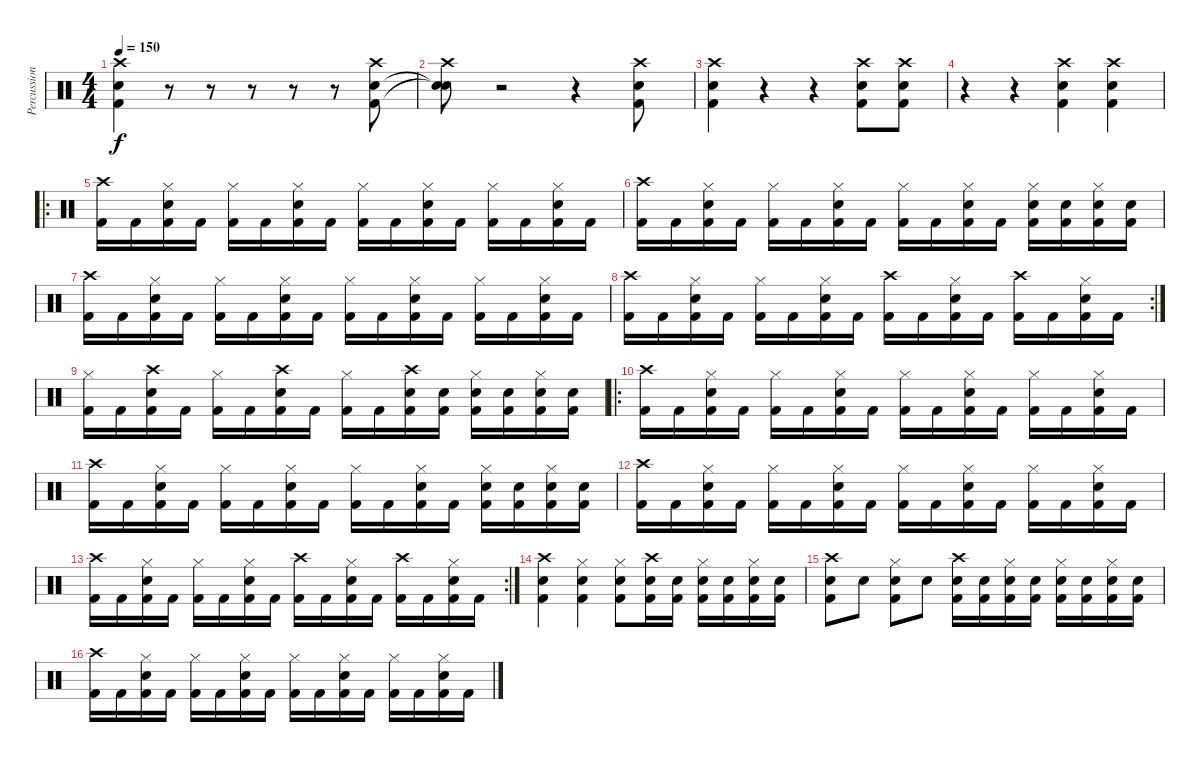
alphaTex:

\track ("Percussion" "Percussion") {instrument percussion}
\staff {score}
\articulation defaults
\ts (4 4)
\tempo 150
\clef neutral
\ks c
("Crash high (hit)" "Snare (hit) 2" "Kick (hit) 2").4{dy f} r.8 r.8 r.8 r.8 r.8 ("Crash high (hit)" "Snare (hit) 2" "Kick (hit) 2").8 |
("Crash high (hit)" "Snare (hit)"{t} "Snare (hit)"{t}).8 r.2 r.4 ("Crash high (hit)" "Snare (hit) 2" "Kick (hit) 2").8 |
("Crash high (hit)" "Snare (hit) 2" "Kick (hit) 2").4 r.4 r.4 ("Crash high (hit)" "Snare (hit) 2" "Kick (hit) 2").8 ("Crash high (hit)" "Snare (hit) 2" "Kick (hit) 2").8 |
r.4 r.4 ("Crash high (hit)" "Snare (hit) 2" "Kick (hit) 2").4 ("Crash high (hit)" "Snare (hit) 2" "Kick (hit) 2").4 |
\ro
("Crash high (hit)" "Kick (hit) 2").16 "Kick (hit) 2".16 ("Hi-Hat (closed)" "Snare (hit) 2" "Kick (hit) 2").16 "Kick (hit) 2".16 ("Hi-Hat (closed)" "Kick (hit) 2").16 "Kick (hit) 2".16 ("Hi-Hat (closed)" "Snare (hit) 2" "Kick (hit) 2").16 "Kick (hit) 2".16 ("Hi-Hat (closed)" "Kick (hit) 2").16 "Kick (hit) 2".16 ("Hi-Hat (closed)" "Snare (hit) 2" "Kick (hit) 2").16 "Kick (hit) 2".16 ("Hi-Hat (closed)" "Kick (hit) 2").16 "Kick (hit) 2".16 ("Hi-Hat (closed)" "Snare (hit) 2" "Kick (hit) 2").16 "Kick (hit) 2".16 |
("Crash high (hit)" "Kick (hit) 2").16 "Kick (hit) 2".16 ("Hi-Hat (closed)" "Snare (hit) 2" "Kick (hit) 2").16 "Kick (hit) 2".16 ("Hi-Hat (closed)" "Kick (hit) 2").16 "Kick (hit) 2".16 ("Hi-Hat (closed)" "Snare (hit) 2" "Kick (hit) 2").16 "Kick (hit) 2".16 ("Hi-Hat (closed)" "Kick (hit) 2").16 "Kick (hit) 2".16 ("Hi-Hat (closed)" "Snare (hit) 2" "Kick (hit) 2").16 "Kick (hit) 2".16 ("Hi-Hat (closed)" "Snare (hit) 2" "Kick (hit) 2").16 ("Snare (hit) 2" "Kick (hit) 2").16 ("Hi-Hat (closed)" "Snare (hit) 2" "Kick (hit) 2").16 ("Snare (hit) 2" "Kick (hit) 2").16 |
("Crash high (hit)" "Kick (hit) 2").16 "Kick (hit) 2".16 ("Hi-Hat (closed)" "Snare (hit) 2" "Kick (hit) 2").16 "Kick (hit) 2".16 ("Hi-Hat (closed)" "Kick (hit) 2").16 "Kick (hit) 2".16 ("Hi-Hat (closed)" "Snare (hit) 2" "Kick (hit) 2").16 "Kick (hit) 2".16 ("Hi-Hat (closed)" "Kick (hit) 2").16 "Kick (hit) 2".16 ("Hi-Hat (closed)" "Snare (hit) 2" "Kick (hit) 2").16 "Kick (hit) 2".16 ("Hi-Hat (closed)" "Kick (hit) 2").16 "Kick (hit) 2".16 ("Hi-Hat (closed)" "Snare (hit) 2" "Kick (hit) 2").16 "Kick (hit) 2".16 |
\rc 2
("Crash high (hit)" "Kick (hit) 2").16 "Kick (hit) 2".16 ("Hi-Hat (closed)" "Snare (hit) 2" "Kick (hit) 2").16 "Kick (hit) 2".16 ("Hi-Hat (closed)" "Kick (hit) 2").16 "Kick (hit) 2".16 ("Hi-Hat (closed)" "Snare (hit) 2" "Kick (hit) 2").16 "Kick (hit) 2".16 ("Crash high (hit)" "Kick (hit) 2").16 "Kick (hit) 2".16 ("Hi-Hat (closed)" "Snare (hit) 2" "Kick (hit) 2").16 "Kick (hit) 2".16 ("Crash high (hit)" "Kick (hit) 2").16 "Kick (hit) 2".16 ("Hi-Hat (closed)" "Snare (hit) 2" "Kick (hit) 2").16 "Kick (hit) 2".16 |
("Hi-Hat (closed)" "Kick (hit) 2").16 "Kick (hit) 2".16 ("Crash high (hit)" "Snare (hit) 2" "Kick (hit) 2").16 "Kick (hit) 2".16 ("Hi-Hat (closed)" "Kick (hit) 2").16 "Kick (hit) 2".16 ("Crash high (hit)" "Snare (hit) 2" "Kick (hit) 2").16 "Kick (hit) 2".16 ("Hi-Hat (closed)" "Kick (hit) 2").16 "Kick (hit) 2".16 ("Crash high (hit)" "Snare (hit) 2" "Kick (hit) 2").16 ("Snare (hit) 2" "Kick (hit) 2").16 ("Hi-Hat (closed)" "Snare (hit) 2" "Kick (hit) 2").16 ("Snare (hit) 2" "Kick (hit) 2").16 ("Hi-Hat (closed)" "Snare (hit) 2" "Kick (hit) 2").16 ("Snare (hit) 2" "Kick (hit) 2").16 |
\ro
("Crash high (hit)" "Kick (hit) 2").16 "Kick (hit) 2".16 ("Hi-Hat (closed)" "Snare (hit) 2" "Kick (hit) 2").16 "Kick (hit) 2".16 ("Hi-Hat (closed)" "Kick (hit) 2").16 "Kick (hit) 2".16 ("Hi-Hat (closed)" "Snare (hit) 2" "Kick (hit) 2").16 "Kick (hit) 2".16 ("Hi-Hat (closed)" "Kick (hit) 2").16 "Kick (hit) 2".16 ("Hi-Hat (closed)" "Snare (hit) 2" "Kick (hit) 2").16 "Kick (hit) 2".16 ("Hi-Hat (closed)" "Kick (hit) 2").16 "Kick (hit) 2".16 ("Hi-Hat (closed)" "Snare (hit) 2" "Kick (hit) 2").16 "Kick (hit) 2".16 |
("Crash high (hit)" "Kick (hit) 2").16 "Kick (hit) 2".16 ("Hi-Hat (closed)" "Snare (hit) 2" "Kick (hit) 2").16 "Kick (hit) 2".16 ("Hi-Hat (closed)" "Kick (hit) 2").16 "Kick (hit) 2".16 ("Hi-Hat (closed)" "Snare (hit) 2" "Kick (hit) 2").16 "Kick (hit) 2".16 ("Hi-Hat (closed)" "Kick (hit) 2").16 "Kick (hit) 2".16 ("Hi-Hat (closed)" "Snare (hit) 2" "Kick (hit) 2").16 "Kick (hit) 2".16 ("Hi-Hat (closed)" "Snare (hit) 2" "Kick (hit) 2").16 ("Snare (hit) 2" "Kick (hit) 2").16 ("Hi-Hat (closed)" "Snare (hit) 2" "Kick (hit) 2").16 ("Snare (hit) 2" "Kick (hit) 2").16 |
("Crash high (hit)" "Kick (hit) 2").16 "Kick (hit) 2".16 ("Hi-Hat (closed)" "Snare (hit) 2" "Kick (hit) 2").16 "Kick (hit) 2".16 ("Hi-Hat (closed)" "Kick (hit) 2").16 "Kick (hit) 2".16 ("Hi-Hat (closed)" "Snare (hit) 2" "Kick (hit) 2").16 "Kick (hit) 2".16 ("Hi-Hat (closed)" "Kick (hit) 2").16 "Kick (hit) 2".16 ("Hi-Hat (closed)" "Snare (hit) 2" "Kick (hit) 2").16 "Kick (hit) 2".16 ("Hi-Hat (closed)" "Kick (hit) 2").16 "Kick (hit) 2".16 ("Hi-Hat (closed)" "Snare (hit) 2" "Kick (hit) 2").16 "Kick (hit) 2".16 |
\rc 2
("Crash high (hit)" "Kick (hit) 2").16 "Kick (hit) 2".16 ("Hi-Hat (closed)" "Snare (hit) 2" "Kick (hit) 2").16 "Kick (hit) 2".16 ("Hi-Hat (closed)" "Kick (hit) 2").16 "Kick (hit) 2".16 ("Hi-Hat (closed)" "Snare (hit) 2" "Kick (hit) 2").16 "Kick (hit) 2".16 ("Crash high (hit)" "Kick (hit) 2").16 "Kick (hit) 2".16 ("Hi-Hat (closed)" "Snare (hit) 2" "Kick (hit) 2").16 "Kick (hit) 2".16 ("Crash high (hit)" "Kick (hit) 2").16 "Kick (hit) 2".16 ("Hi-Hat (closed)" "Snare (hit) 2" "Kick (hit) 2").16 "Kick (hit) 2".16 |
("Crash high (hit)" "Snare (hit) 2" "Kick (hit) 2").4 ("Hi-Hat (closed)" "Snare (hit) 2" "Kick (hit) 2").4 ("Hi-Hat (closed)" "Snare (hit) 2" "Kick (hit) 2").8 ("Crash high (hit)" "Snare (hit) 2" "Kick (hit) 2").16 ("Snare (hit) 2" "Kick (hit) 2").16 ("Hi-Hat (closed)" "Snare (hit) 2" "Kick (hit) 2").16 ("Snare (hit) 2" "Kick (hit) 2").16 ("Hi-Hat (closed)" "Snare (hit) 2" "Kick (hit) 2").16 ("Snare (hit) 2" "Kick (hit) 2").16 |
("Crash high (hit)" "Snare (hit) 2" "Kick (hit) 2").8 "Snare (hit) 2".8 ("Hi-Hat (closed)" "Snare (hit) 2" "Kick (hit) 2").8 "Snare (hit) 2".8 ("Crash high (hit)" "Snare (hit) 2" "Kick (hit) 2").16 ("Snare (hit) 2" "Kick (hit) 2").16 ("Hi-Hat (closed)" "Snare (hit) 2" "Kick (hit) 2").16 ("Snare (hit) 2" "Kick (hit) 2").16 ("Hi-Hat (closed)" "Snare (hit) 2" "Kick (hit) 2").16 ("Snare (hit) 2" "Kick (hit) 2").16 ("Hi-Hat (closed)" "Snare (hit) 2" "Kick (hit) 2").16 ("Snare (hit) 2" "Kick (hit) 2").16 |
("Crash high (hit)" "Kick (hit) 2").16 "Kick (hit) 2".16 ("Hi-Hat (closed)" "Snare (hit) 2" "Kick (hit) 2").16 "Kick (hit) 2".16 ("Hi-Hat (closed)" "Kick (hit) 2").16 "Kick (hit) 2".16 ("Hi-Hat (closed)" "Snare (hit) 2" "Kick (hit) 2").16 "Kick (hit) 2".16 ("Hi-Hat (closed)" "Kick (hit) 2").16 "Kick (hit) 2".16 ("Hi-Hat (closed)" "Snare (hit) 2" "Kick (hit) 2").16 "Kick (hit) 2".16 ("Hi-Hat (closed)" "Kick (hit) 2").16 "Kick (hit) 2".16 ("Hi-Hat (closed)" "Snare (hit) 2" "Kick (hit) 2").16 "Kick (hit) 2".16
